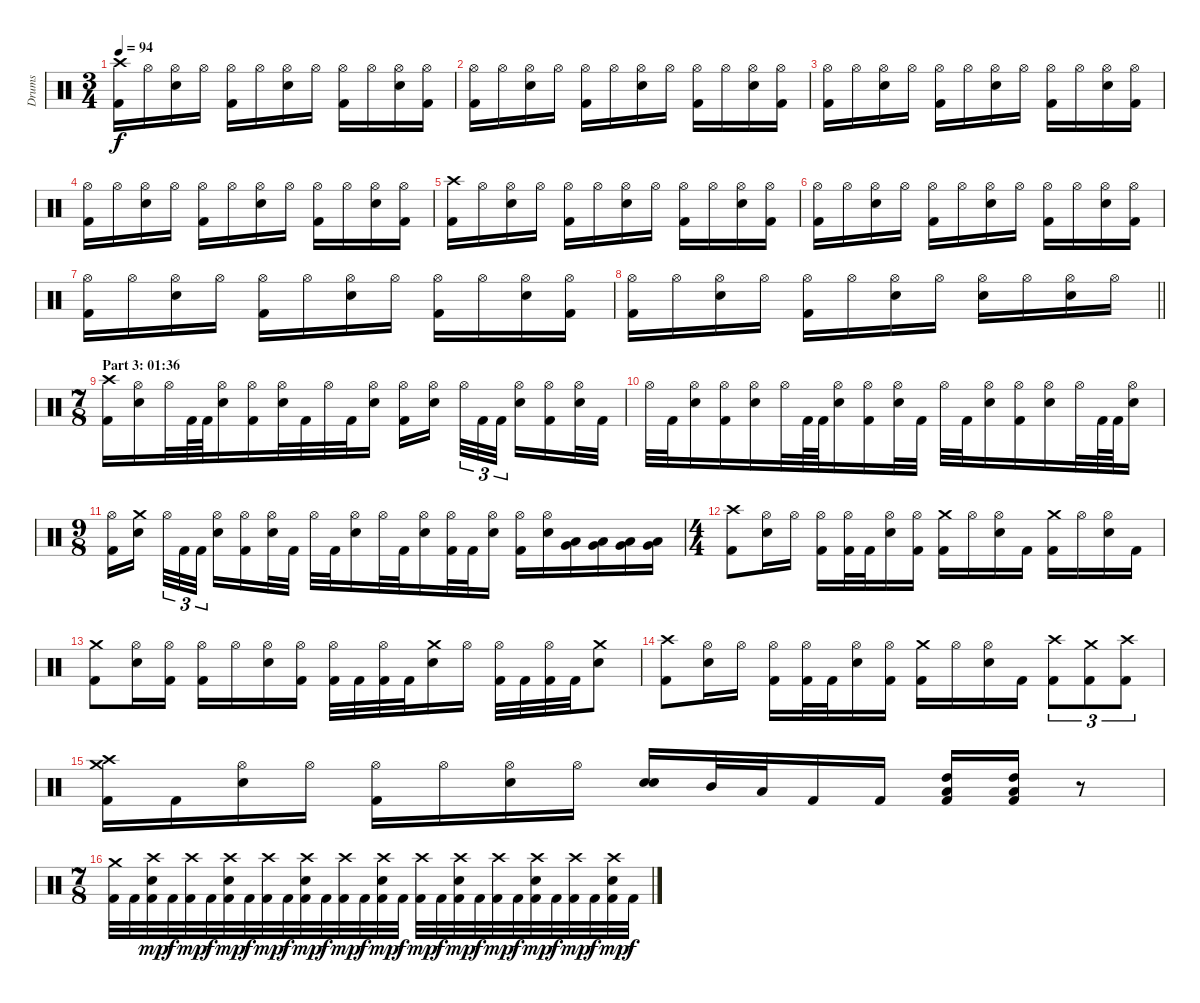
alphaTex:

\track ("Drums" "Drums") {instrument percussion}
\staff {score}
\articulation defaults
\ts (3 4)
\tempo 94
\clef neutral
\ks c
("Crash high (hit)" "Kick (hit) 2").16{dy f} "Hi-Hat (open)".16 ("Hi-Hat (open)" "Electric Snare (hit)").16 "Hi-Hat (open)".16 ("Hi-Hat (open)" "Kick (hit) 2").16 "Hi-Hat (open)".16 ("Hi-Hat (open)" "Electric Snare (hit)").16 "Hi-Hat (open)".16 ("Hi-Hat (open)" "Kick (hit) 2").16 "Hi-Hat (open)".16 ("Hi-Hat (open)" "Electric Snare (hit)").16 ("Hi-Hat (open)" "Kick (hit) 2").16 |
("Hi-Hat (open)" "Kick (hit) 2").16 "Hi-Hat (open)".16 ("Hi-Hat (open)" "Electric Snare (hit)").16 "Hi-Hat (open)".16 ("Hi-Hat (open)" "Kick (hit) 2").16 "Hi-Hat (open)".16 ("Hi-Hat (open)" "Electric Snare (hit)").16 "Hi-Hat (open)".16 ("Hi-Hat (open)" "Kick (hit) 2").16 "Hi-Hat (open)".16 ("Hi-Hat (open)" "Electric Snare (hit)").16 ("Hi-Hat (open)" "Kick (hit) 2").16 |
("Hi-Hat (open)" "Kick (hit) 2").16 "Hi-Hat (open)".16 ("Hi-Hat (open)" "Electric Snare (hit)").16 "Hi-Hat (open)".16 ("Hi-Hat (open)" "Kick (hit) 2").16 "Hi-Hat (open)".16 ("Hi-Hat (open)" "Electric Snare (hit)").16 "Hi-Hat (open)".16 ("Hi-Hat (open)" "Kick (hit) 2").16 "Hi-Hat (open)".16 ("Hi-Hat (open)" "Electric Snare (hit)").16 ("Hi-Hat (open)" "Kick (hit) 2").16 |
("Hi-Hat (open)" "Kick (hit) 2").16 "Hi-Hat (open)".16 ("Hi-Hat (open)" "Electric Snare (hit)").16 "Hi-Hat (open)".16 ("Hi-Hat (open)" "Kick (hit) 2").16 "Hi-Hat (open)".16 ("Hi-Hat (open)" "Electric Snare (hit)").16 "Hi-Hat (open)".16 ("Hi-Hat (open)" "Kick (hit) 2").16 "Hi-Hat (open)".16 ("Hi-Hat (open)" "Electric Snare (hit)").16 ("Hi-Hat (open)" "Kick (hit) 2").16 |
("Crash high (hit)" "Kick (hit) 2").16 "Hi-Hat (open)".16 ("Hi-Hat (open)" "Electric Snare (hit)").16 "Hi-Hat (open)".16 ("Hi-Hat (open)" "Kick (hit) 2").16 "Hi-Hat (open)".16 ("Hi-Hat (open)" "Electric Snare (hit)").16 "Hi-Hat (open)".16 ("Hi-Hat (open)" "Kick (hit) 2").16 "Hi-Hat (open)".16 ("Hi-Hat (open)" "Electric Snare (hit)").16 ("Hi-Hat (open)" "Kick (hit) 2").16 |
("Hi-Hat (open)" "Kick (hit) 2").16 "Hi-Hat (open)".16 ("Hi-Hat (open)" "Electric Snare (hit)").16 "Hi-Hat (open)".16 ("Hi-Hat (open)" "Kick (hit) 2").16 "Hi-Hat (open)".16 ("Hi-Hat (open)" "Electric Snare (hit)").16 "Hi-Hat (open)".16 ("Hi-Hat (open)" "Kick (hit) 2").16 "Hi-Hat (open)".16 ("Hi-Hat (open)" "Electric Snare (hit)").16 ("Hi-Hat (open)" "Kick (hit) 2").16 |
("Hi-Hat (open)" "Kick (hit) 2").16 "Hi-Hat (open)".16 ("Hi-Hat (open)" "Electric Snare (hit)").16 "Hi-Hat (open)".16 ("Hi-Hat (open)" "Kick (hit) 2").16 "Hi-Hat (open)".16 ("Hi-Hat (open)" "Electric Snare (hit)").16 "Hi-Hat (open)".16 ("Hi-Hat (open)" "Kick (hit) 2").16 "Hi-Hat (open)".16 ("Hi-Hat (open)" "Electric Snare (hit)").16 ("Hi-Hat (open)" "Kick (hit) 2").16 |
\barLineRight lightlight
("Hi-Hat (open)" "Kick (hit) 2").16 "Hi-Hat (open)".16 ("Hi-Hat (open)" "Electric Snare (hit)").16 "Hi-Hat (open)".16 ("Hi-Hat (open)" "Kick (hit) 2").16 "Hi-Hat (open)".16 ("Hi-Hat (open)" "Electric Snare (hit)").16 "Hi-Hat (open)".16 ("Hi-Hat (open)" "Electric Snare (hit)").16 "Hi-Hat (open)".16 ("Hi-Hat (open)" "Electric Snare (hit)").16 "Hi-Hat (open)".16 |
\ts (7 8)
\section ("" "Part 3: 01:36")
("Crash high (hit)" "Kick (hit) 2").16 ("Hi-Hat (open)" "Electric Snare (hit)").16 "Hi-Hat (open)".32 "Kick (hit) 2".64 "Kick (hit) 2".64 ("Hi-Hat (open)" "Electric Snare (hit)").16 ("Hi-Hat (open)" "Kick (hit) 2").16 ("Hi-Hat (open)" "Electric Snare (hit)").32 "Kick (hit) 2".32 "Hi-Hat (open)".32 "Kick (hit) 2".32 ("Hi-Hat (open)" "Electric Snare (hit)").16 ("Hi-Hat (open)" "Kick (hit) 2").16 ("Hi-Hat (open)" "Electric Snare (hit)").16 "Hi-Hat (open)".32{tu (3 2)} "Kick (hit) 2".32{tu (3 2)} "Kick (hit) 2".32{tu (3 2) beam splitsecondary} ("Hi-Hat (open)" "Electric Snare (hit)").16 ("Hi-Hat (open)" "Kick (hit) 2").16 ("Hi-Hat (open)" "Electric Snare (hit)").32 "Kick (hit) 2".32 |
"Hi-Hat (open)".32 "Kick (hit) 2".32 ("Hi-Hat (open)" "Electric Snare (hit)").16 ("Hi-Hat (open)" "Kick (hit) 2").16 ("Hi-Hat (open)" "Electric Snare (hit)").16 "Hi-Hat (open)".32 "Kick (hit) 2".64 "Kick (hit) 2".64 ("Hi-Hat (open)" "Electric Snare (hit)").16 ("Hi-Hat (open)" "Kick (hit) 2").16 ("Hi-Hat (open)" "Electric Snare (hit)").32 "Kick (hit) 2".32 "Hi-Hat (open)".32 "Kick (hit) 2".32 ("Hi-Hat (open)" "Electric Snare (hit)").16 ("Hi-Hat (open)" "Kick (hit) 2").16 ("Hi-Hat (open)" "Electric Snare (hit)").16 "Hi-Hat (open)".32 "Kick (hit) 2".64 "Kick (hit) 2".64 ("Hi-Hat (open)" "Electric Snare (hit)").16 |
\ts (9 8)
("Hi-Hat (open)" "Kick (hit) 2").16 ("Crash medium (hit)" "Electric Snare (hit)").16{beam splitsecondary} "Hi-Hat (open)".32{tu (3 2)} "Kick (hit) 2".32{tu (3 2)} "Kick (hit) 2".32{tu (3 2) beam splitsecondary} ("Hi-Hat (open)" "Electric Snare (hit)").16 ("Hi-Hat (open)" "Kick (hit) 2").16 ("Hi-Hat (open)" "Electric Snare (hit)").32 "Kick (hit) 2".32 "Hi-Hat (open)".32 "Kick (hit) 2".32 ("Hi-Hat (open)" "Electric Snare (hit)").16 "Hi-Hat (open)".32 "Kick (hit) 2".32 ("Hi-Hat (open)" "Electric Snare (hit)").16 ("Hi-Hat (open)" "Kick (hit) 2").32 "Kick (hit) 2".32 ("Hi-Hat (open)" "Electric Snare (hit)").16 ("Hi-Hat (open)" "Kick (hit) 2").16 ("Hi-Hat (open)" "Electric Snare (hit)").16 ("Very Low Tom (hit)" "Low Floor Tom (hit)").16 ("Very Low Tom (hit)" "Low Floor Tom (hit)").16 ("Very Low Tom (hit)" "Low Floor Tom (hit)").16 ("Very Low Tom (hit)" "Low Floor Tom (hit)").16 |
\ts (4 4)
("Crash high (hit)" "Kick (hit) 2").8 ("Hi-Hat (open)" "Electric Snare (hit)").16 "Hi-Hat (open)".16 ("Hi-Hat (open)" "Kick (hit) 2").16 ("Hi-Hat (open)" "Kick (hit) 2").32 "Kick (hit) 2".32 ("Hi-Hat (open)" "Electric Snare (hit)").16 ("Hi-Hat (open)" "Kick (hit) 2").16 ("Crash medium (hit)" "Kick (hit) 2").16 "Hi-Hat (open)".16 ("Hi-Hat (open)" "Electric Snare (hit)").16 "Kick (hit) 2".16 ("Crash medium (hit)" "Kick (hit) 2").16 "Hi-Hat (open)".16 ("Hi-Hat (open)" "Electric Snare (hit)").16 "Kick (hit) 2".16 |
("Crash medium (hit)" "Kick (hit) 2").8 ("Hi-Hat (open)" "Electric Snare (hit)").16 ("Hi-Hat (open)" "Kick (hit) 2").16 ("Hi-Hat (open)" "Kick (hit) 2").16 "Hi-Hat (open)".16 ("Hi-Hat (open)" "Electric Snare (hit)").16 ("Hi-Hat (open)" "Kick (hit) 2").16 ("Hi-Hat (open)" "Kick (hit) 2").32 "Kick (hit) 2".32 ("Hi-Hat (open)" "Kick (hit) 2").32 "Kick (hit) 2".32 ("Crash medium (hit)" "Electric Snare (hit)").16 "Hi-Hat (open)".16 ("Hi-Hat (open)" "Kick (hit) 2").32 "Kick (hit) 2".32 ("Hi-Hat (open)" "Kick (hit) 2").32 "Kick (hit) 2".32 ("Crash medium (hit)" "Electric Snare (hit)").8 |
("Crash high (hit)" "Kick (hit) 2").8 ("Hi-Hat (open)" "Electric Snare (hit)").16 "Hi-Hat (open)".16 ("Hi-Hat (open)" "Kick (hit) 2").16 ("Hi-Hat (open)" "Kick (hit) 2").32 "Kick (hit) 2".32 ("Hi-Hat (open)" "Electric Snare (hit)").16 ("Hi-Hat (open)" "Kick (hit) 2").16 ("Crash medium (hit)" "Kick (hit) 2").16 "Hi-Hat (open)".16 ("Hi-Hat (open)" "Electric Snare (hit)").16 "Kick (hit) 2".16 ("Crash high (hit)" "Kick (hit) 2").8{tu (3 2)} ("Crash medium (hit)" "Kick (hit) 2").8{tu (3 2)} ("Crash high (hit)" "Kick (hit) 2").8{tu (3 2)} |
("Crash high (hit)" "Crash medium (hit)" "Kick (hit) 2").16 "Kick (hit) 2".16 ("Hi-Hat (open)" "Electric Snare (hit)").16 "Hi-Hat (open)".16 ("Hi-Hat (open)" "Kick (hit) 2").16 "Hi-Hat (open)".16 ("Hi-Hat (open)" "Electric Snare (hit)").16 "Hi-Hat (open)".16 ("Electric Snare (hit)" "Electric Snare (hit)").16{bd 60} "Mid Tom (hit)".32 "Low Tom (hit)".32 "Kick (hit) 2".16 "Kick (hit) 2".16 ("High Tom (hit)" "Low Tom (hit)" "Kick (hit) 2").16 ("High Tom (hit)" "Low Tom (hit)" "Kick (hit) 2").16 r.8 |
\ts (7 8)
("Crash medium (hit)" "Kick (hit) 2").32 "Kick (hit) 2".32 ("Crash high (hit)" "Electric Snare (hit)" "Kick (hit) 2").32{dy mp} "Kick (hit) 2".32{dy f} ("Crash high (hit)" "Kick (hit) 2").32{dy mp} "Kick (hit) 2".32{dy f} ("Crash high (hit)" "Electric Snare (hit)" "Kick (hit) 2").32{dy mp} "Kick (hit) 2".32{dy f} ("Crash high (hit)" "Kick (hit) 2").32{dy mp} "Kick (hit) 2".32{dy f} ("Crash high (hit)" "Electric Snare (hit)" "Kick (hit) 2").32{dy mp} "Kick (hit) 2".32{dy f} ("Crash high (hit)" "Kick (hit) 2").32{dy mp} "Kick (hit) 2".32{dy f} ("Crash high (hit)" "Electric Snare (hit)" "Kick (hit) 2").32{dy mp} "Kick (hit) 2".32{dy f} ("Crash high (hit)" "Kick (hit) 2").32{dy mp} "Kick (hit) 2".32{dy f} ("Crash high (hit)" "Electric Snare (hit)" "Kick (hit) 2").32{dy mp} "Kick (hit) 2".32{dy f} ("Crash high (hit)" "Kick (hit) 2").32{dy mp} "Kick (hit) 2".32{dy f} ("Crash high (hit)" "Electric Snare (hit)" "Kick (hit) 2").32{dy mp} "Kick (hit) 2".32{dy f} ("Crash high (hit)" "Kick (hit) 2").32{dy mp} "Kick (hit) 2".32{dy f} ("Crash high (hit)" "Electric Snare (hit)" "Kick (hit) 2").32{dy mp} "Kick (hit) 2".32{dy f}
